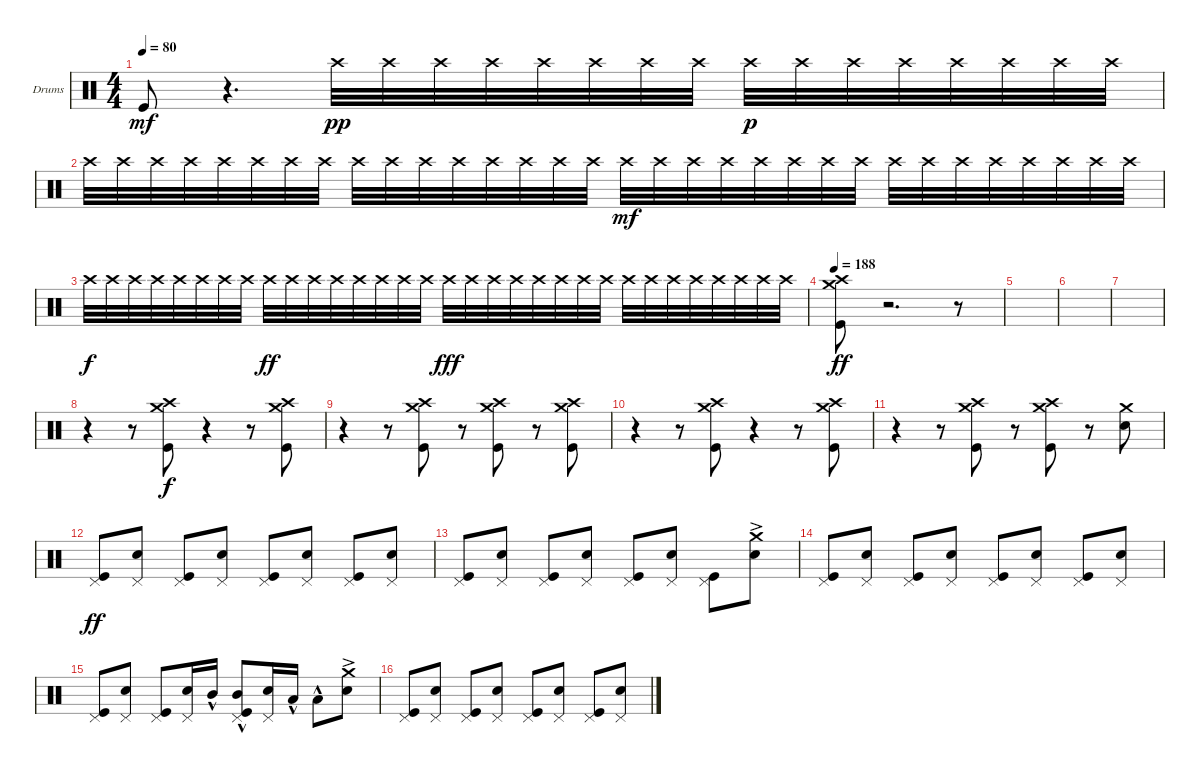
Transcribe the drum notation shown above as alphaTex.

\bracketExtendMode groupsimilarinstruments
\firstSystemTrackNameOrientation horizontal
\otherSystemsTrackNameOrientation horizontal
\track ("Drums" "Drums") {instrument percussion}
\staff {score}
\articulation defaults
\ts (4 4)
\tempo 80
\clef neutral
\ks c "Kick (hit)".8{dy mf}
r.4{d} "Crash high (hit)".32{dy pp} "Crash high (hit)".32 "Crash high (hit)".32 "Crash high (hit)".32 "Crash high (hit)".32 "Crash high (hit)".32 "Crash high (hit)".32 "Crash high (hit)".32 "Crash high (hit)".32{dy p} "Crash high (hit)".32 "Crash high (hit)".32 "Crash high (hit)".32 "Crash high (hit)".32 "Crash high (hit)".32 "Crash high (hit)".32 "Crash high (hit)".32 |
"Crash high (hit)".32 "Crash high (hit)".32 "Crash high (hit)".32 "Crash high (hit)".32 "Crash high (hit)".32 "Crash high (hit)".32 "Crash high (hit)".32 "Crash high (hit)".32 "Crash high (hit)".32 "Crash high (hit)".32 "Crash high (hit)".32 "Crash high (hit)".32 "Crash high (hit)".32 "Crash high (hit)".32 "Crash high (hit)".32 "Crash high (hit)".32 "Crash high (hit)".32{dy mf} "Crash high (hit)".32 "Crash high (hit)".32 "Crash high (hit)".32 "Crash high (hit)".32 "Crash high (hit)".32 "Crash high (hit)".32 "Crash high (hit)".32 "Crash high (hit)".32 "Crash high (hit)".32 "Crash high (hit)".32 "Crash high (hit)".32 "Crash high (hit)".32 "Crash high (hit)".32 "Crash high (hit)".32 "Crash high (hit)".32 |
"Crash high (hit)".32{dy f} "Crash high (hit)".32 "Crash high (hit)".32 "Crash high (hit)".32 "Crash high (hit)".32 "Crash high (hit)".32 "Crash high (hit)".32 "Crash high (hit)".32 "Crash high (hit)".32{dy ff} "Crash high (hit)".32 "Crash high (hit)".32 "Crash high (hit)".32 "Crash high (hit)".32 "Crash high (hit)".32 "Crash high (hit)".32 "Crash high (hit)".32 "Crash high (hit)".32{dy fff} "Crash high (hit)".32 "Crash high (hit)".32 "Crash high (hit)".32 "Crash high (hit)".32 "Crash high (hit)".32 "Crash high (hit)".32 "Crash high (hit)".32 "Crash high (hit)".32 "Crash high (hit)".32 "Crash high (hit)".32 "Crash high (hit)".32 "Crash high (hit)".32 "Crash high (hit)".32 "Crash high (hit)".32 "Crash high (hit)".32 |
\tempo 188
("Kick (hit)" "Crash medium (hit)" "Crash high (hit)").8{dy ff} r.2{d} r.8 |
|
|
|
r.4 r.8 ("Crash medium (hit)" "Crash high (hit)" "Kick (hit)").8{dy f} r.4 r.8 ("Crash medium (hit)" "Crash high (hit)" "Kick (hit)").8 |
r.4 r.8 ("Crash medium (hit)" "Crash high (hit)" "Kick (hit)").8 r.8 ("Crash medium (hit)" "Crash high (hit)" "Kick (hit)").8 r.8 ("Crash medium (hit)" "Crash high (hit)" "Kick (hit)").8 |
r.4 r.8 ("Crash medium (hit)" "Crash high (hit)" "Kick (hit)").8 r.4 r.8 ("Crash medium (hit)" "Crash high (hit)" "Kick (hit)").8 |
r.4 r.8 ("Crash medium (hit)" "Crash high (hit)" "Kick (hit)").8 r.8 ("Crash medium (hit)" "Crash high (hit)" "Kick (hit)").8 r.8 ("Crash medium (hit)" "Snare (hit) 2").8 |
("Kick (hit)" "Pedal Hi-Hat (hit)").8{dy ff} ("Snare (hit) 2" "Pedal Hi-Hat (hit)").8 ("Kick (hit)" "Pedal Hi-Hat (hit)").8 ("Snare (hit) 2" "Pedal Hi-Hat (hit)").8 ("Kick (hit)" "Pedal Hi-Hat (hit)").8 ("Snare (hit) 2" "Pedal Hi-Hat (hit)").8 ("Kick (hit)" "Pedal Hi-Hat (hit)").8 ("Snare (hit) 2" "Pedal Hi-Hat (hit)").8 |
("Kick (hit)" "Pedal Hi-Hat (hit)").8 ("Snare (hit) 2" "Pedal Hi-Hat (hit)").8 ("Kick (hit)" "Pedal Hi-Hat (hit)").8 ("Snare (hit) 2" "Pedal Hi-Hat (hit)").8 ("Kick (hit)" "Pedal Hi-Hat (hit)").8 ("Snare (hit) 2" "Pedal Hi-Hat (hit)").8 ("Kick (hit)" "Pedal Hi-Hat (hit)").8 ("Snare (hit) 2" "Crash medium (hit)"{ac}).8 |
("Kick (hit)" "Pedal Hi-Hat (hit)").8 ("Snare (hit) 2" "Pedal Hi-Hat (hit)").8 ("Kick (hit)" "Pedal Hi-Hat (hit)").8 ("Snare (hit) 2" "Pedal Hi-Hat (hit)").8 ("Kick (hit)" "Pedal Hi-Hat (hit)").8 ("Snare (hit) 2" "Pedal Hi-Hat (hit)").8 ("Kick (hit)" "Pedal Hi-Hat (hit)").8 ("Snare (hit) 2" "Pedal Hi-Hat (hit)").8 |
("Kick (hit)" "Pedal Hi-Hat (hit)").8 ("Snare (hit) 2" "Pedal Hi-Hat (hit)").8 ("Kick (hit)" "Pedal Hi-Hat (hit)").8 ("Snare (hit) 2" "Pedal Hi-Hat (hit)").16 "Mid Tom (hit)"{hac}.16 ("Kick (hit)" "Pedal Hi-Hat (hit)" "Mid Tom (hit)"{hac}).8 ("Snare (hit) 2" "Pedal Hi-Hat (hit)").16 "Low Tom (hit)"{hac}.16 "Low Tom (hit)"{hac}.8 ("Snare (hit) 2" "Crash medium (hit)"{ac}).8 |
("Kick (hit)" "Pedal Hi-Hat (hit)").8 ("Snare (hit) 2" "Pedal Hi-Hat (hit)").8 ("Kick (hit)" "Pedal Hi-Hat (hit)").8 ("Snare (hit) 2" "Pedal Hi-Hat (hit)").8 ("Kick (hit)" "Pedal Hi-Hat (hit)").8 ("Snare (hit) 2" "Pedal Hi-Hat (hit)").8 ("Kick (hit)" "Pedal Hi-Hat (hit)").8 ("Snare (hit) 2" "Pedal Hi-Hat (hit)").8
